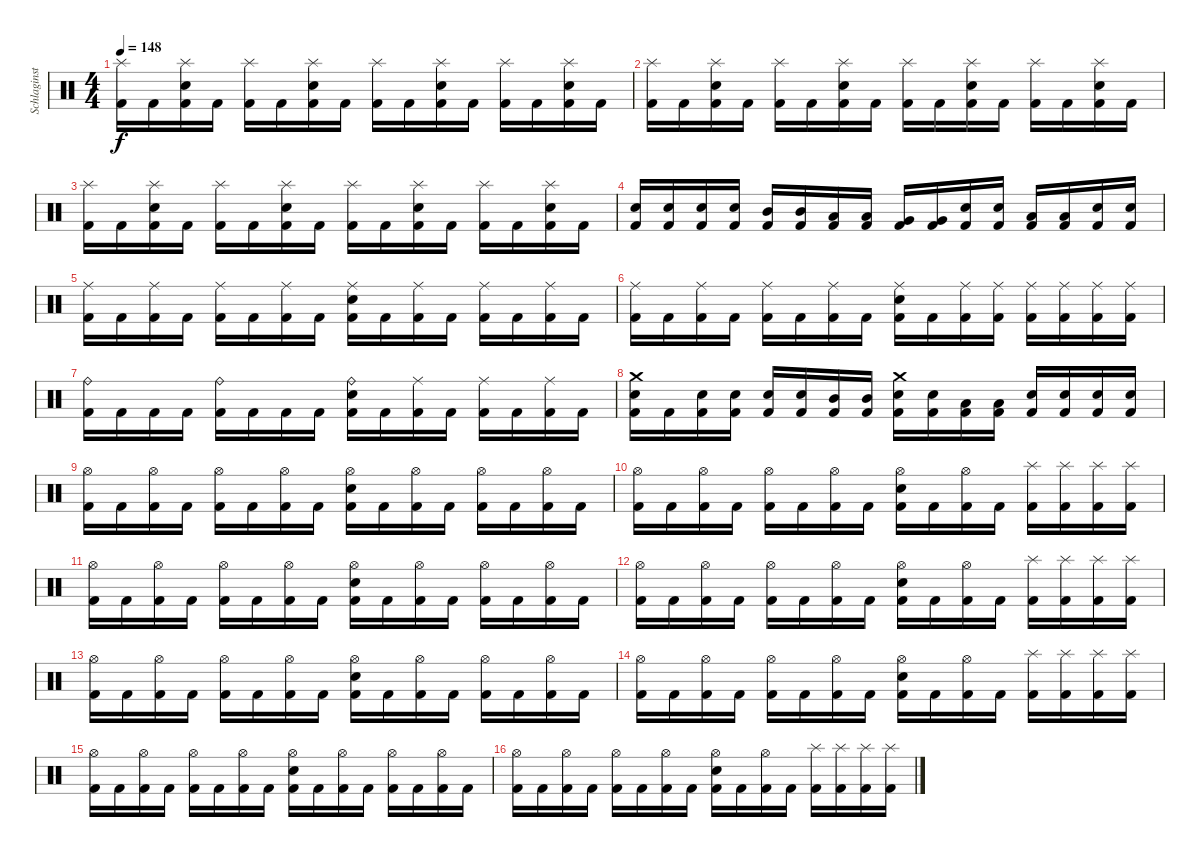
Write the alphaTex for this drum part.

\track ("Schlaginstrumente - Auswahl" "Schlaginst") {instrument percussion}
\staff {score}
\articulation defaults
\ts (4 4)
\tempo 148
\clef neutral
\ks c
("Splash (hit)" "Kick (hit) 2").16{dy f} "Kick (hit) 2".16 ("Splash (hit)" "Electric Snare (hit)" "Kick (hit) 2").16 "Kick (hit) 2".16 ("Splash (hit)" "Kick (hit) 2").16 "Kick (hit) 2".16 ("Splash (hit)" "Electric Snare (hit)" "Kick (hit) 2").16 "Kick (hit) 2".16 ("Splash (hit)" "Kick (hit) 2").16 "Kick (hit) 2".16 ("Splash (hit)" "Electric Snare (hit)" "Kick (hit) 2").16 "Kick (hit) 2".16 ("Splash (hit)" "Kick (hit) 2").16 "Kick (hit) 2".16 ("Splash (hit)" "Electric Snare (hit)" "Kick (hit) 2").16 "Kick (hit) 2".16 |
("Splash (hit)" "Kick (hit) 2").16 "Kick (hit) 2".16 ("Splash (hit)" "Electric Snare (hit)" "Kick (hit) 2").16 "Kick (hit) 2".16 ("Splash (hit)" "Kick (hit) 2").16 "Kick (hit) 2".16 ("Splash (hit)" "Electric Snare (hit)" "Kick (hit) 2").16 "Kick (hit) 2".16 ("Splash (hit)" "Kick (hit) 2").16 "Kick (hit) 2".16 ("Splash (hit)" "Electric Snare (hit)" "Kick (hit) 2").16 "Kick (hit) 2".16 ("Splash (hit)" "Kick (hit) 2").16 "Kick (hit) 2".16 ("Splash (hit)" "Electric Snare (hit)" "Kick (hit) 2").16 "Kick (hit) 2".16 |
("Splash (hit)" "Kick (hit) 2").16 "Kick (hit) 2".16 ("Splash (hit)" "Electric Snare (hit)" "Kick (hit) 2").16 "Kick (hit) 2".16 ("Splash (hit)" "Kick (hit) 2").16 "Kick (hit) 2".16 ("Splash (hit)" "Electric Snare (hit)" "Kick (hit) 2").16 "Kick (hit) 2".16 ("Splash (hit)" "Kick (hit) 2").16 "Kick (hit) 2".16 ("Splash (hit)" "Electric Snare (hit)" "Kick (hit) 2").16 "Kick (hit) 2".16 ("Splash (hit)" "Kick (hit) 2").16 "Kick (hit) 2".16 ("Splash (hit)" "Electric Snare (hit)" "Kick (hit) 2").16 "Kick (hit) 2".16 |
("Electric Snare (hit)" "Kick (hit) 2").16 ("Electric Snare (hit)" "Kick (hit) 2").16 ("Electric Snare (hit)" "Kick (hit) 2").16 ("Electric Snare (hit)" "Kick (hit) 2").16 ("Mid Tom (hit)" "Kick (hit) 2").16 ("Mid Tom (hit)" "Kick (hit) 2").16 ("Low Tom (hit)" "Kick (hit) 2").16 ("Low Tom (hit)" "Kick (hit) 2").16 ("Very Low Tom (hit)" "Kick (hit) 2").16 ("Very Low Tom (hit)" "Kick (hit) 2").16 ("Electric Snare (hit)" "Kick (hit) 2").16 ("Electric Snare (hit)" "Kick (hit) 2").16 ("Low Tom (hit)" "Kick (hit) 2").16 ("Low Tom (hit)" "Kick (hit) 2").16 ("Electric Snare (hit)" "Kick (hit) 2").16 ("Electric Snare (hit)" "Kick (hit) 2").16 |
("Ride (middle)" "Kick (hit) 2").16 "Kick (hit) 2".16 ("Ride (middle)" "Kick (hit) 2").16 "Kick (hit) 2".16 ("Ride (middle)" "Kick (hit) 2").16 "Kick (hit) 2".16 ("Ride (middle)" "Kick (hit) 2").16 "Kick (hit) 2".16 ("Ride (middle)" "Electric Snare (hit)" "Kick (hit) 2").16 "Kick (hit) 2".16 ("Ride (middle)" "Kick (hit) 2").16 "Kick (hit) 2".16 ("Ride (middle)" "Kick (hit) 2").16 "Kick (hit) 2".16 ("Ride (middle)" "Kick (hit) 2").16 "Kick (hit) 2".16 |
("Ride (middle)" "Kick (hit) 2").16 "Kick (hit) 2".16 ("Ride (middle)" "Kick (hit) 2").16 "Kick (hit) 2".16 ("Ride (middle)" "Kick (hit) 2").16 "Kick (hit) 2".16 ("Ride (middle)" "Kick (hit) 2").16 "Kick (hit) 2".16 ("Ride (middle)" "Electric Snare (hit)" "Kick (hit) 2").16 "Kick (hit) 2".16 ("Ride (middle)" "Kick (hit) 2").16 ("Ride (middle)" "Kick (hit) 2").16 ("Ride (middle)" "Kick (hit) 2").16 ("Ride (middle)" "Kick (hit) 2").16 ("Ride (middle)" "Kick (hit) 2").16 ("Ride (middle)" "Kick (hit) 2").16 |
("Ride (bell)" "Kick (hit) 2").16 "Kick (hit) 2".16 "Kick (hit) 2".16 "Kick (hit) 2".16 ("Ride (bell)" "Kick (hit) 2").16 "Kick (hit) 2".16 "Kick (hit) 2".16 "Kick (hit) 2".16 ("Ride (bell)" "Electric Snare (hit)" "Kick (hit) 2").16 "Kick (hit) 2".16 ("Ride (middle)" "Kick (hit) 2").16 "Kick (hit) 2".16 ("Ride (middle)" "Kick (hit) 2").16 "Kick (hit) 2".16 ("Ride (middle)" "Kick (hit) 2").16 "Kick (hit) 2".16 |
("Crash medium (hit)" "Electric Snare (hit)" "Kick (hit) 2").16 "Kick (hit) 2".16 ("Electric Snare (hit)" "Kick (hit) 2").16 ("Electric Snare (hit)" "Kick (hit) 2").16 ("Electric Snare (hit)" "Kick (hit) 2").16 ("Electric Snare (hit)" "Kick (hit) 2").16 ("Mid Tom (hit)" "Kick (hit) 2").16 ("Mid Tom (hit)" "Kick (hit) 2").16 ("Crash medium (hit)" "Electric Snare (hit)" "Kick (hit) 2").16 ("Electric Snare (hit)" "Kick (hit) 2").16 ("Low Tom (hit)" "Kick (hit) 2").16 ("Low Tom (hit)" "Kick (hit) 2").16 ("Electric Snare (hit)" "Kick (hit) 2").16 ("Electric Snare (hit)" "Kick (hit) 2").16 ("Electric Snare (hit)" "Kick (hit) 2").16 ("Electric Snare (hit)" "Kick (hit) 2").16 |
("Hi-Hat (open)" "Kick (hit) 2").16 "Kick (hit) 2".16 ("Hi-Hat (open)" "Kick (hit) 2").16 "Kick (hit) 2".16 ("Hi-Hat (open)" "Kick (hit) 2").16 "Kick (hit) 2".16 ("Hi-Hat (open)" "Kick (hit) 2").16 "Kick (hit) 2".16 ("Hi-Hat (open)" "Electric Snare (hit)" "Kick (hit) 2").16 "Kick (hit) 2".16 ("Hi-Hat (open)" "Kick (hit) 2").16 "Kick (hit) 2".16 ("Hi-Hat (open)" "Kick (hit) 2").16 "Kick (hit) 2".16 ("Hi-Hat (open)" "Kick (hit) 2").16 "Kick (hit) 2".16 |
("Hi-Hat (open)" "Kick (hit) 2").16 "Kick (hit) 2".16 ("Hi-Hat (open)" "Kick (hit) 2").16 "Kick (hit) 2".16 ("Hi-Hat (open)" "Kick (hit) 2").16 "Kick (hit) 2".16 ("Hi-Hat (open)" "Kick (hit) 2").16 "Kick (hit) 2".16 ("Hi-Hat (open)" "Electric Snare (hit)" "Kick (hit) 2").16 "Kick (hit) 2".16 ("Hi-Hat (open)" "Kick (hit) 2").16 "Kick (hit) 2".16 ("Splash (hit)" "Kick (hit) 2").16 ("Splash (hit)" "Kick (hit) 2").16 ("Splash (hit)" "Kick (hit) 2").16 ("Splash (hit)" "Kick (hit) 2").16 |
("Hi-Hat (open)" "Kick (hit) 2").16 "Kick (hit) 2".16 ("Hi-Hat (open)" "Kick (hit) 2").16 "Kick (hit) 2".16 ("Hi-Hat (open)" "Kick (hit) 2").16 "Kick (hit) 2".16 ("Hi-Hat (open)" "Kick (hit) 2").16 "Kick (hit) 2".16 ("Hi-Hat (open)" "Electric Snare (hit)" "Kick (hit) 2").16 "Kick (hit) 2".16 ("Hi-Hat (open)" "Kick (hit) 2").16 "Kick (hit) 2".16 ("Hi-Hat (open)" "Kick (hit) 2").16 "Kick (hit) 2".16 ("Hi-Hat (open)" "Kick (hit) 2").16 "Kick (hit) 2".16 |
("Hi-Hat (open)" "Kick (hit) 2").16 "Kick (hit) 2".16 ("Hi-Hat (open)" "Kick (hit) 2").16 "Kick (hit) 2".16 ("Hi-Hat (open)" "Kick (hit) 2").16 "Kick (hit) 2".16 ("Hi-Hat (open)" "Kick (hit) 2").16 "Kick (hit) 2".16 ("Hi-Hat (open)" "Electric Snare (hit)" "Kick (hit) 2").16 "Kick (hit) 2".16 ("Hi-Hat (open)" "Kick (hit) 2").16 "Kick (hit) 2".16 ("Splash (hit)" "Kick (hit) 2").16 ("Splash (hit)" "Kick (hit) 2").16 ("Splash (hit)" "Kick (hit) 2").16 ("Splash (hit)" "Kick (hit) 2").16 |
("Hi-Hat (open)" "Kick (hit) 2").16 "Kick (hit) 2".16 ("Hi-Hat (open)" "Kick (hit) 2").16 "Kick (hit) 2".16 ("Hi-Hat (open)" "Kick (hit) 2").16 "Kick (hit) 2".16 ("Hi-Hat (open)" "Kick (hit) 2").16 "Kick (hit) 2".16 ("Hi-Hat (open)" "Electric Snare (hit)" "Kick (hit) 2").16 "Kick (hit) 2".16 ("Hi-Hat (open)" "Kick (hit) 2").16 "Kick (hit) 2".16 ("Hi-Hat (open)" "Kick (hit) 2").16 "Kick (hit) 2".16 ("Hi-Hat (open)" "Kick (hit) 2").16 "Kick (hit) 2".16 |
("Hi-Hat (open)" "Kick (hit) 2").16 "Kick (hit) 2".16 ("Hi-Hat (open)" "Kick (hit) 2").16 "Kick (hit) 2".16 ("Hi-Hat (open)" "Kick (hit) 2").16 "Kick (hit) 2".16 ("Hi-Hat (open)" "Kick (hit) 2").16 "Kick (hit) 2".16 ("Hi-Hat (open)" "Electric Snare (hit)" "Kick (hit) 2").16 "Kick (hit) 2".16 ("Hi-Hat (open)" "Kick (hit) 2").16 "Kick (hit) 2".16 ("Splash (hit)" "Kick (hit) 2").16 ("Splash (hit)" "Kick (hit) 2").16 ("Splash (hit)" "Kick (hit) 2").16 ("Splash (hit)" "Kick (hit) 2").16 |
("Hi-Hat (open)" "Kick (hit) 2").16 "Kick (hit) 2".16 ("Hi-Hat (open)" "Kick (hit) 2").16 "Kick (hit) 2".16 ("Hi-Hat (open)" "Kick (hit) 2").16 "Kick (hit) 2".16 ("Hi-Hat (open)" "Kick (hit) 2").16 "Kick (hit) 2".16 ("Hi-Hat (open)" "Electric Snare (hit)" "Kick (hit) 2").16 "Kick (hit) 2".16 ("Hi-Hat (open)" "Kick (hit) 2").16 "Kick (hit) 2".16 ("Hi-Hat (open)" "Kick (hit) 2").16 "Kick (hit) 2".16 ("Hi-Hat (open)" "Kick (hit) 2").16 "Kick (hit) 2".16 |
("Hi-Hat (open)" "Kick (hit) 2").16 "Kick (hit) 2".16 ("Hi-Hat (open)" "Kick (hit) 2").16 "Kick (hit) 2".16 ("Hi-Hat (open)" "Kick (hit) 2").16 "Kick (hit) 2".16 ("Hi-Hat (open)" "Kick (hit) 2").16 "Kick (hit) 2".16 ("Hi-Hat (open)" "Electric Snare (hit)" "Kick (hit) 2").16 "Kick (hit) 2".16 ("Hi-Hat (open)" "Kick (hit) 2").16 "Kick (hit) 2".16 ("Splash (hit)" "Kick (hit) 2").16 ("Splash (hit)" "Kick (hit) 2").16 ("Splash (hit)" "Kick (hit) 2").16 ("Splash (hit)" "Kick (hit) 2").16
